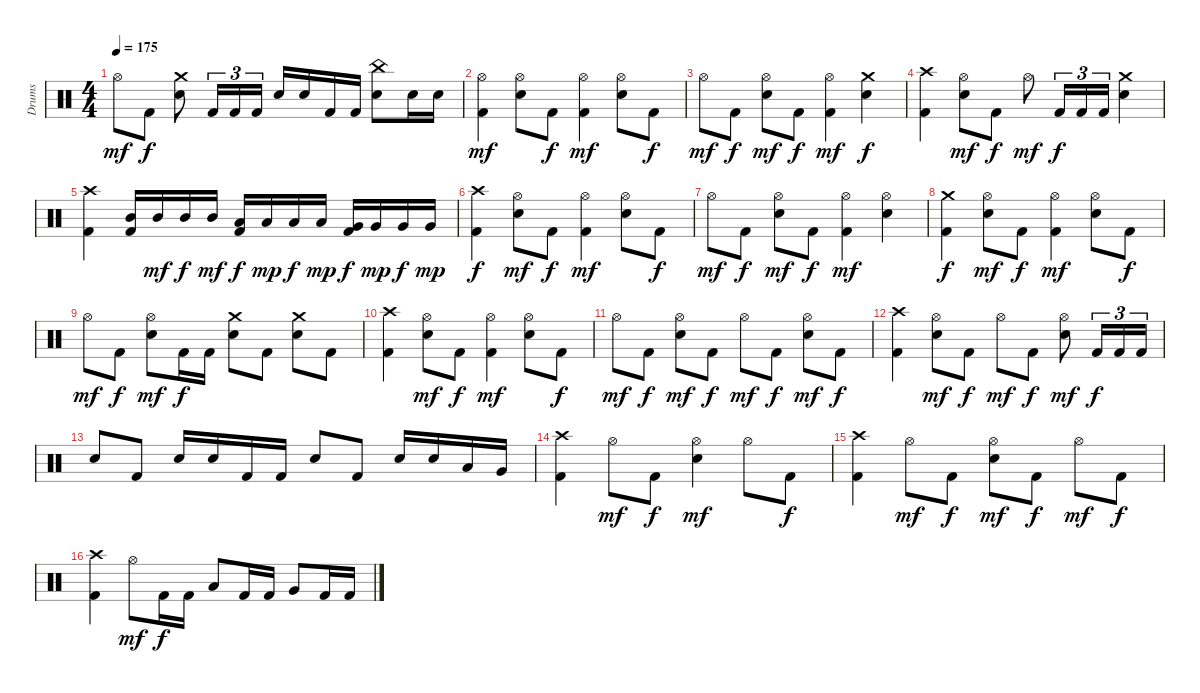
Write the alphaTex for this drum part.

\track ("Drums" "Drums") {instrument percussion}
\staff {score}
\articulation defaults
\ts (4 4)
\tempo 175
\clef neutral
\ks c "Hi-Hat (open)".8{dy mf} "Kick (hit) 2".8{dy f}
("Crash medium (hit)" "Electric Snare (hit)").8 "Kick (hit) 2".16{tu (3 2)} "Kick (hit) 2".16{tu (3 2)} "Kick (hit) 2".16{tu (3 2)} "Electric Snare (hit)".16 "Electric Snare (hit)".16 "Kick (hit) 2".16 "Kick (hit) 2".16 ("China (hit)" "Electric Snare (hit)").8 "Electric Snare (hit)".16 "Electric Snare (hit)".16 |
("Kick (hit) 2" "Hi-Hat (open)").4{dy mf} ("Hi-Hat (open)" "Electric Snare (hit)").8 "Kick (hit) 2".8{dy f} ("Kick (hit) 2" "Hi-Hat (open)").4{dy mf} ("Hi-Hat (open)" "Electric Snare (hit)").8 "Kick (hit) 2".8{dy f} |
"Hi-Hat (open)".8{dy mf} "Kick (hit) 2".8{dy f} ("Hi-Hat (open)" "Electric Snare (hit)").8{dy mf} "Kick (hit) 2".8{dy f} ("Kick (hit) 2" "Hi-Hat (open)").4{dy mf} ("Crash medium (hit)" "Electric Snare (hit)").4{dy f} |
("Kick (hit) 2" "Crash high (hit)").4 ("Hi-Hat (open)" "Electric Snare (hit)").8{dy mf} "Kick (hit) 2".8{dy f} "Hi-Hat (open)".8{dy mf} "Kick (hit) 2".16{tu (3 2) dy f} "Kick (hit) 2".16{tu (3 2)} "Kick (hit) 2".16{tu (3 2)} ("Crash medium (hit)" "Electric Snare (hit)").4 |
("Kick (hit) 2" "Crash high (hit)").4 ("Kick (hit) 2" "Mid Tom (hit)").16 "Mid Tom (hit)".16{dy mf} "Mid Tom (hit)".16{dy f} "Mid Tom (hit)".16{dy mf} ("Kick (hit) 2" "Low Tom (hit)").16{dy f} "Low Tom (hit)".16{dy mp} "Low Tom (hit)".16{dy f} "Low Tom (hit)".16{dy mp} ("Kick (hit) 2" "Very Low Tom (hit)").16{dy f} "Very Low Tom (hit)".16{dy mp} "Very Low Tom (hit)".16{dy f} "Very Low Tom (hit)".16{dy mp} |
("Kick (hit) 2" "Crash high (hit)").4{dy f} ("Hi-Hat (open)" "Electric Snare (hit)").8{dy mf} "Kick (hit) 2".8{dy f} ("Kick (hit) 2" "Hi-Hat (open)").4{dy mf} ("Hi-Hat (open)" "Electric Snare (hit)").8 "Kick (hit) 2".8{dy f} |
"Hi-Hat (open)".8{dy mf} "Kick (hit) 2".8{dy f} ("Hi-Hat (open)" "Electric Snare (hit)").8{dy mf} "Kick (hit) 2".8{dy f} ("Kick (hit) 2" "Hi-Hat (open)").4{dy mf} ("Hi-Hat (open)" "Electric Snare (hit)").4 |
("Kick (hit) 2" "Crash medium (hit)").4{dy f} ("Hi-Hat (open)" "Electric Snare (hit)").8{dy mf} "Kick (hit) 2".8{dy f} ("Kick (hit) 2" "Hi-Hat (open)").4{dy mf} ("Hi-Hat (open)" "Electric Snare (hit)").8 "Kick (hit) 2".8{dy f} |
"Hi-Hat (open)".8{dy mf} "Kick (hit) 2".8{dy f} ("Hi-Hat (open)" "Electric Snare (hit)").8{dy mf} "Kick (hit) 2".16{dy f} "Kick (hit) 2".16 ("Crash medium (hit)" "Electric Snare (hit)").8 "Kick (hit) 2".8 ("Crash medium (hit)" "Electric Snare (hit)").8 "Kick (hit) 2".8 |
("Kick (hit) 2" "Crash high (hit)").4 ("Hi-Hat (open)" "Electric Snare (hit)").8{dy mf} "Kick (hit) 2".8{dy f} ("Kick (hit) 2" "Hi-Hat (open)").4{dy mf} ("Hi-Hat (open)" "Electric Snare (hit)").8 "Kick (hit) 2".8{dy f} |
"Hi-Hat (open)".8{dy mf} "Kick (hit) 2".8{dy f} ("Hi-Hat (open)" "Electric Snare (hit)").8{dy mf} "Kick (hit) 2".8{dy f} "Hi-Hat (open)".8{dy mf} "Kick (hit) 2".8{dy f} ("Hi-Hat (open)" "Electric Snare (hit)").8{dy mf} "Kick (hit) 2".8{dy f} |
("Kick (hit) 2" "Crash high (hit)").4 ("Hi-Hat (open)" "Electric Snare (hit)").8{dy mf} "Kick (hit) 2".8{dy f} "Hi-Hat (open)".8{dy mf} "Kick (hit) 2".8{dy f} ("Hi-Hat (open)" "Electric Snare (hit)").8{dy mf} "Kick (hit) 2".16{tu (3 2) dy f} "Kick (hit) 2".16{tu (3 2)} "Kick (hit) 2".16{tu (3 2)} |
"Electric Snare (hit)".8 "Kick (hit) 2".8 "Electric Snare (hit)".16 "Electric Snare (hit)".16 "Kick (hit) 2".16 "Kick (hit) 2".16 "Electric Snare (hit)".8 "Kick (hit) 2".8 "Electric Snare (hit)".16 "Electric Snare (hit)".16 "Low Tom (hit)".16 "Very Low Tom (hit)".16 |
("Kick (hit) 2" "Crash high (hit)").4 "Hi-Hat (open)".8{dy mf} "Kick (hit) 2".8{dy f} ("Hi-Hat (open)" "Electric Snare (hit)").4{dy mf} "Hi-Hat (open)".8 "Kick (hit) 2".8{dy f} |
("Kick (hit) 2" "Crash high (hit)").4 "Hi-Hat (open)".8{dy mf} "Kick (hit) 2".8{dy f} ("Hi-Hat (open)" "Electric Snare (hit)").8{dy mf} "Kick (hit) 2".8{dy f} "Hi-Hat (open)".8{dy mf} "Kick (hit) 2".8{dy f} |
("Kick (hit) 2" "Crash high (hit)").4 "Hi-Hat (open)".8{dy mf} "Kick (hit) 2".16{dy f} "Kick (hit) 2".16 "Low Tom (hit)".8 "Kick (hit) 2".16 "Kick (hit) 2".16 "Very Low Tom (hit)".8 "Kick (hit) 2".16 "Kick (hit) 2".16
